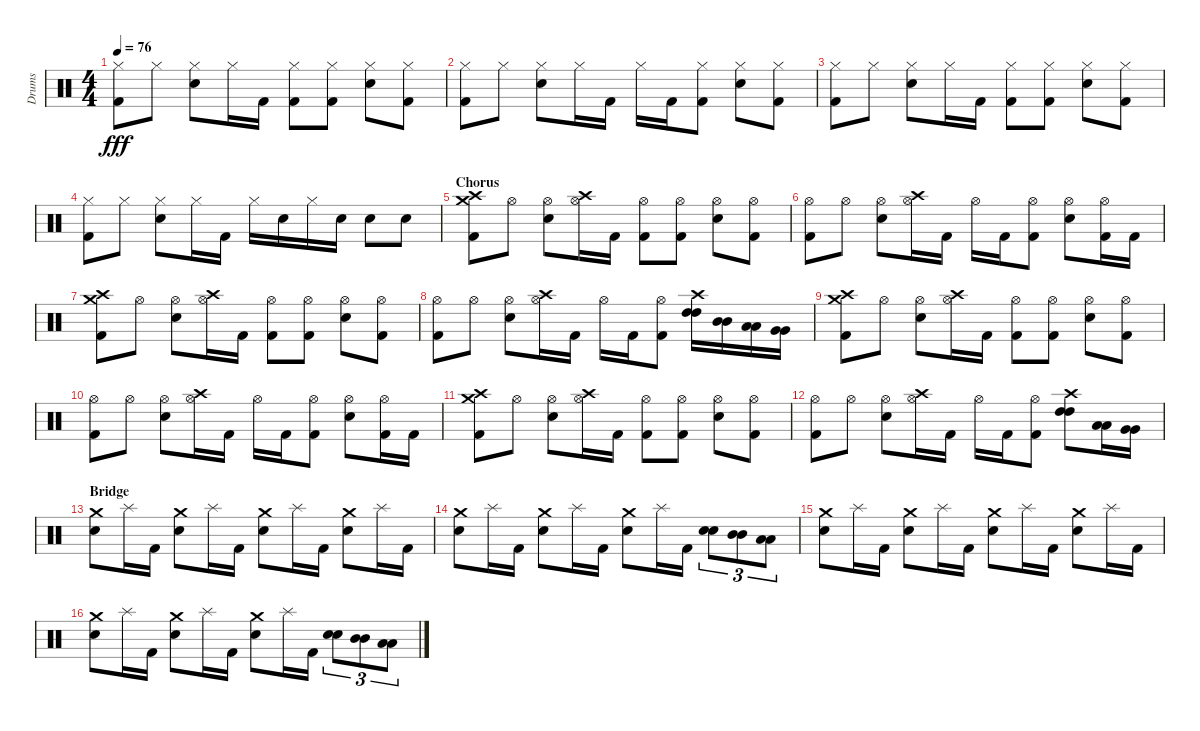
\track ("Drums" "Drums") {instrument percussion}
\staff {score}
\articulation defaults
\ts (4 4)
\tempo 76
\clef neutral
\ks c
("Hi-Hat (closed)" "Kick (hit) 2").8{dy fff} "Hi-Hat (closed)".8 ("Hi-Hat (closed)" "Electric Snare (hit)").8 "Hi-Hat (closed)".16 "Kick (hit) 2".16 ("Hi-Hat (closed)" "Kick (hit) 2").8 ("Hi-Hat (closed)" "Kick (hit) 2").8 ("Hi-Hat (closed)" "Electric Snare (hit)").8 ("Hi-Hat (closed)" "Kick (hit) 2").8 |
("Hi-Hat (closed)" "Kick (hit) 2").8 "Hi-Hat (closed)".8 ("Hi-Hat (closed)" "Electric Snare (hit)").8 "Hi-Hat (closed)".16 "Kick (hit) 2".16 "Hi-Hat (closed)".16 "Kick (hit) 2".16 ("Hi-Hat (closed)" "Kick (hit) 2").8 ("Hi-Hat (closed)" "Electric Snare (hit)").8 ("Hi-Hat (closed)" "Kick (hit) 2").8 |
("Hi-Hat (closed)" "Kick (hit) 2").8 "Hi-Hat (closed)".8 ("Hi-Hat (closed)" "Electric Snare (hit)").8 "Hi-Hat (closed)".16 "Kick (hit) 2".16 ("Hi-Hat (closed)" "Kick (hit) 2").8 ("Hi-Hat (closed)" "Kick (hit) 2").8 ("Hi-Hat (closed)" "Electric Snare (hit)").8 ("Hi-Hat (closed)" "Kick (hit) 2").8 |
("Hi-Hat (closed)" "Kick (hit) 2").8 "Hi-Hat (closed)".8 ("Hi-Hat (closed)" "Electric Snare (hit)").8 "Hi-Hat (closed)".16 "Kick (hit) 2".16 "Hi-Hat (closed)".16 "Electric Snare (hit)".16 "Hi-Hat (closed)".16 "Electric Snare (hit)".16 "Electric Snare (hit)".8 "Electric Snare (hit)".8 |
\section ("" "Chorus")
("Crash high (hit)" "Crash medium (hit)" "Kick (hit) 2").8 "Hi-Hat (open)".8 ("Hi-Hat (open)" "Electric Snare (hit)").8 ("Crash high (hit)" "Hi-Hat (open)").16 "Kick (hit) 2".16 ("Hi-Hat (open)" "Kick (hit) 2").8 ("Hi-Hat (open)" "Kick (hit) 2").8 ("Hi-Hat (open)" "Electric Snare (hit)").8 ("Hi-Hat (open)" "Kick (hit) 2").8 |
("Hi-Hat (open)" "Kick (hit) 2").8 "Hi-Hat (open)".8 ("Hi-Hat (open)" "Electric Snare (hit)").8 ("Crash high (hit)" "Hi-Hat (open)").16 "Kick (hit) 2".16 "Hi-Hat (open)".16 "Kick (hit) 2".16 ("Hi-Hat (open)" "Kick (hit) 2").8 ("Hi-Hat (open)" "Electric Snare (hit)").8 ("Hi-Hat (open)" "Kick (hit) 2").16 "Kick (hit) 2".16 |
("Crash high (hit)" "Crash medium (hit)" "Kick (hit) 2").8 "Hi-Hat (open)".8 ("Hi-Hat (open)" "Electric Snare (hit)").8 ("Crash high (hit)" "Hi-Hat (open)").16 "Kick (hit) 2".16 ("Hi-Hat (open)" "Kick (hit) 2").8 ("Hi-Hat (open)" "Kick (hit) 2").8 ("Hi-Hat (open)" "Electric Snare (hit)").8 ("Hi-Hat (open)" "Kick (hit) 2").8 |
("Hi-Hat (open)" "Kick (hit) 2").8 "Hi-Hat (open)".8 ("Hi-Hat (open)" "Electric Snare (hit)").8 ("Crash high (hit)" "Hi-Hat (open)").16 "Kick (hit) 2".16 "Hi-Hat (open)".16 "Kick (hit) 2".16 ("Hi-Hat (open)" "Kick (hit) 2").8 ("Crash high (hit)" "High Tom (hit)" "High Tom (hit)").16 ("Mid Tom (hit)" "Mid Tom (hit)").16 ("Low Tom (hit)" "Low Tom (hit)").16 ("Very Low Tom (hit)" "Very Low Tom (hit)").16 |
("Crash high (hit)" "Crash medium (hit)" "Kick (hit) 2").8 "Hi-Hat (open)".8 ("Hi-Hat (open)" "Electric Snare (hit)").8 ("Crash high (hit)" "Hi-Hat (open)").16 "Kick (hit) 2".16 ("Hi-Hat (open)" "Kick (hit) 2").8 ("Hi-Hat (open)" "Kick (hit) 2").8 ("Hi-Hat (open)" "Electric Snare (hit)").8 ("Hi-Hat (open)" "Kick (hit) 2").8 |
("Hi-Hat (open)" "Kick (hit) 2").8 "Hi-Hat (open)".8 ("Hi-Hat (open)" "Electric Snare (hit)").8 ("Crash high (hit)" "Hi-Hat (open)").16 "Kick (hit) 2".16 "Hi-Hat (open)".16 "Kick (hit) 2".16 ("Hi-Hat (open)" "Kick (hit) 2").8 ("Hi-Hat (open)" "Electric Snare (hit)").8 ("Hi-Hat (open)" "Kick (hit) 2").16 "Kick (hit) 2".16 |
("Crash high (hit)" "Crash medium (hit)" "Kick (hit) 2").8 "Hi-Hat (open)".8 ("Hi-Hat (open)" "Electric Snare (hit)").8 ("Crash high (hit)" "Hi-Hat (open)").16 "Kick (hit) 2".16 ("Hi-Hat (open)" "Kick (hit) 2").8 ("Hi-Hat (open)" "Kick (hit) 2").8 ("Hi-Hat (open)" "Electric Snare (hit)").8 ("Hi-Hat (open)" "Kick (hit) 2").8 |
("Hi-Hat (open)" "Kick (hit) 2").8 "Hi-Hat (open)".8 ("Hi-Hat (open)" "Electric Snare (hit)").8 ("Crash high (hit)" "Hi-Hat (open)").16 "Kick (hit) 2".16 "Hi-Hat (open)".16 "Kick (hit) 2".16 ("Hi-Hat (open)" "Kick (hit) 2").8 ("Crash high (hit)" "High Tom (hit)" "High Tom (hit)").8 ("Low Tom (hit)" "Low Tom (hit)").16 ("Very Low Tom (hit)" "Very Low Tom (hit)").16 |
\section ("" "Bridge")
("Crash medium (hit)" "Electric Snare (hit)").8 "Splash (hit)".16 "Kick (hit) 2".16 ("Crash medium (hit)" "Electric Snare (hit)").8 "Splash (hit)".16 "Kick (hit) 2".16 ("Crash medium (hit)" "Electric Snare (hit)").8 "Splash (hit)".16 "Kick (hit) 2".16 ("Crash medium (hit)" "Electric Snare (hit)").8 "Splash (hit)".16 "Kick (hit) 2".16 |
("Crash medium (hit)" "Electric Snare (hit)").8 "Splash (hit)".16 "Kick (hit) 2".16 ("Crash medium (hit)" "Electric Snare (hit)").8 "Splash (hit)".16 "Kick (hit) 2".16 ("Crash medium (hit)" "Electric Snare (hit)").8 "Splash (hit)".16 "Kick (hit) 2".16 ("Electric Snare (hit)" "Electric Snare (hit)").8{tu (3 2)} ("Mid Tom (hit)" "Mid Tom (hit)").8{tu (3 2)} ("Low Tom (hit)" "Low Tom (hit)").8{tu (3 2)} |
("Crash medium (hit)" "Electric Snare (hit)").8 "Splash (hit)".16 "Kick (hit) 2".16 ("Crash medium (hit)" "Electric Snare (hit)").8 "Splash (hit)".16 "Kick (hit) 2".16 ("Crash medium (hit)" "Electric Snare (hit)").8 "Splash (hit)".16 "Kick (hit) 2".16 ("Crash medium (hit)" "Electric Snare (hit)").8 "Splash (hit)".16 "Kick (hit) 2".16 |
("Crash medium (hit)" "Electric Snare (hit)").8 "Splash (hit)".16 "Kick (hit) 2".16 ("Crash medium (hit)" "Electric Snare (hit)").8 "Splash (hit)".16 "Kick (hit) 2".16 ("Crash medium (hit)" "Electric Snare (hit)").8 "Splash (hit)".16 "Kick (hit) 2".16 ("Electric Snare (hit)" "Electric Snare (hit)").8{tu (3 2)} ("Mid Tom (hit)" "Mid Tom (hit)").8{tu (3 2)} ("Low Tom (hit)" "Low Tom (hit)").8{tu (3 2)}
